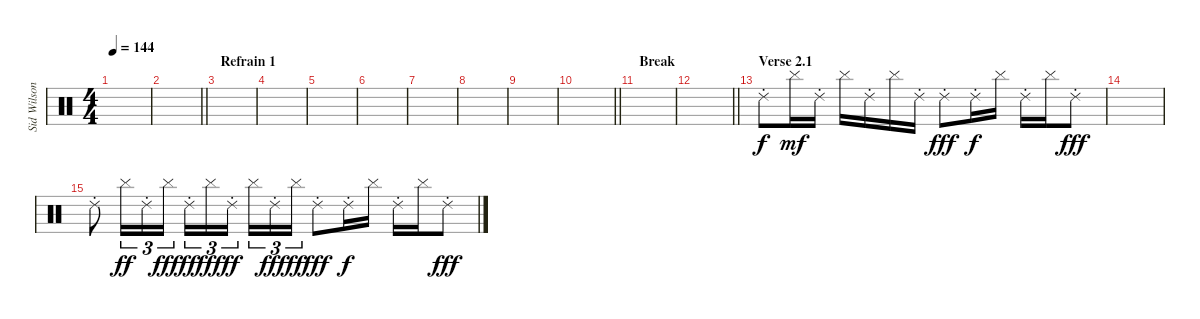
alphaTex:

\track ("Sid Wilson" "Sid Wilson") {instrument percussion}
\staff {score}
\articulation defaults
\ts (4 4)
\tempo 144
\clef neutral
\ks c
|
\barLineRight lightlight
|
\section ("" "Refrain 1")
|
|
|
|
|
|
|
\barLineRight lightlight
|
\section ("" "Break")
|
\barLineRight lightlight
|
\section ("" "Verse 2.1")
"Ride (choke) 2".8 "Cymbal (hit)".16{dy mf} "Ride (choke) 2".16 "Cymbal (hit)".16 "Ride (choke) 2".16 "Cymbal (hit)".16 "Ride (choke) 2".16 "Ride (choke) 2".8{dy fff} "Ride (choke) 2".16{dy f} "Cymbal (hit)".16 "Ride (choke) 2".16 "Cymbal (hit)".16 "Ride (choke) 2".8{dy fff} |
|
"Ride (choke) 2".8 "Cymbal (hit)".16{tu (3 2) dy ff} "Ride (choke) 2".16{tu (3 2)} "Cymbal (hit)".16{tu (3 2) dy fff} "Ride (choke) 2".16{tu (3 2) dy ff} "Cymbal (hit)".16{tu (3 2) dy fff} "Ride (choke) 2".16{tu (3 2) dy ff beam splitsecondary} "Cymbal (hit)".16{tu (3 2)} "Ride (choke) 2".16{tu (3 2) dy fff} "Cymbal (hit)".16{tu (3 2) dy ff} "Ride (choke) 2".8{dy fff} "Ride (choke) 2".16{dy f} "Cymbal (hit)".16 "Ride (choke) 2".16 "Cymbal (hit)".16 "Ride (choke) 2".8{dy fff}
